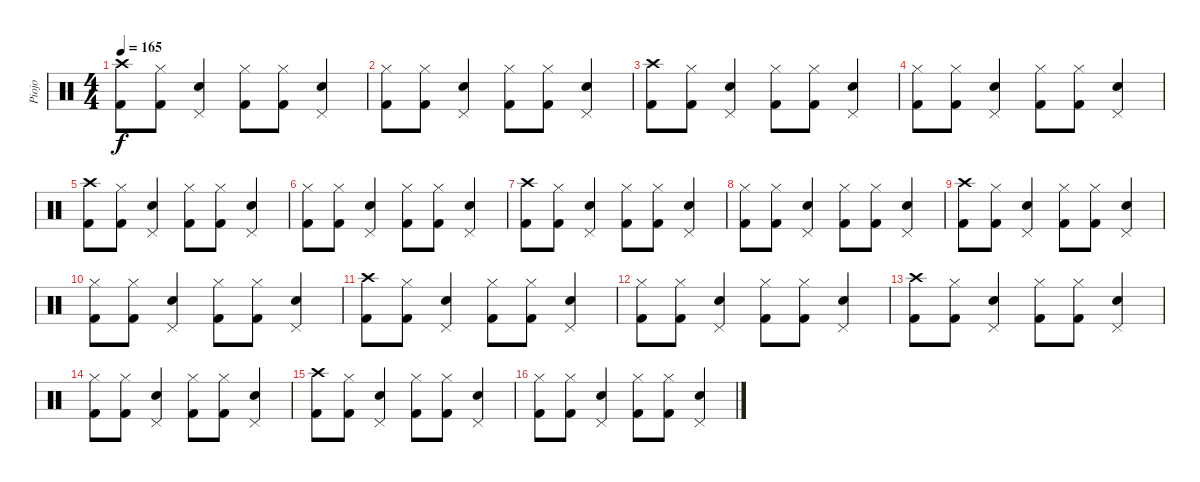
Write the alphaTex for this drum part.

\track ("Piojo" "Piojo") {instrument percussion}
\staff {score}
\articulation defaults
\ts (4 4)
\tempo 165
\clef neutral
\ks c
("Crash high (hit)" "Kick (hit) 2").8{dy f} ("Hi-Hat (closed)" "Kick (hit) 2").8 ("Pedal Hi-Hat (hit)" "Electric Snare (hit)").4 ("Hi-Hat (closed)" "Kick (hit) 2").8 ("Hi-Hat (closed)" "Kick (hit) 2").8 ("Pedal Hi-Hat (hit)" "Electric Snare (hit)").4 |
("Hi-Hat (closed)" "Kick (hit) 2").8 ("Hi-Hat (closed)" "Kick (hit) 2").8 ("Pedal Hi-Hat (hit)" "Electric Snare (hit)").4 ("Hi-Hat (closed)" "Kick (hit) 2").8 ("Hi-Hat (closed)" "Kick (hit) 2").8 ("Pedal Hi-Hat (hit)" "Electric Snare (hit)").4 |
("Crash high (hit)" "Kick (hit) 2").8 ("Hi-Hat (closed)" "Kick (hit) 2").8 ("Pedal Hi-Hat (hit)" "Electric Snare (hit)").4 ("Hi-Hat (closed)" "Kick (hit) 2").8 ("Hi-Hat (closed)" "Kick (hit) 2").8 ("Pedal Hi-Hat (hit)" "Electric Snare (hit)").4 |
("Hi-Hat (closed)" "Kick (hit) 2").8 ("Hi-Hat (closed)" "Kick (hit) 2").8 ("Pedal Hi-Hat (hit)" "Electric Snare (hit)").4 ("Hi-Hat (closed)" "Kick (hit) 2").8 ("Hi-Hat (closed)" "Kick (hit) 2").8 ("Pedal Hi-Hat (hit)" "Electric Snare (hit)").4 |
("Crash high (hit)" "Kick (hit) 2").8 ("Hi-Hat (closed)" "Kick (hit) 2").8 ("Pedal Hi-Hat (hit)" "Electric Snare (hit)").4 ("Hi-Hat (closed)" "Kick (hit) 2").8 ("Hi-Hat (closed)" "Kick (hit) 2").8 ("Pedal Hi-Hat (hit)" "Electric Snare (hit)").4 |
("Hi-Hat (closed)" "Kick (hit) 2").8 ("Hi-Hat (closed)" "Kick (hit) 2").8 ("Pedal Hi-Hat (hit)" "Electric Snare (hit)").4 ("Hi-Hat (closed)" "Kick (hit) 2").8 ("Hi-Hat (closed)" "Kick (hit) 2").8 ("Pedal Hi-Hat (hit)" "Electric Snare (hit)").4 |
("Crash high (hit)" "Kick (hit) 2").8 ("Hi-Hat (closed)" "Kick (hit) 2").8 ("Pedal Hi-Hat (hit)" "Electric Snare (hit)").4 ("Hi-Hat (closed)" "Kick (hit) 2").8 ("Hi-Hat (closed)" "Kick (hit) 2").8 ("Pedal Hi-Hat (hit)" "Electric Snare (hit)").4 |
("Hi-Hat (closed)" "Kick (hit) 2").8 ("Hi-Hat (closed)" "Kick (hit) 2").8 ("Pedal Hi-Hat (hit)" "Electric Snare (hit)").4 ("Hi-Hat (closed)" "Kick (hit) 2").8 ("Hi-Hat (closed)" "Kick (hit) 2").8 ("Pedal Hi-Hat (hit)" "Electric Snare (hit)").4 |
("Crash high (hit)" "Kick (hit) 2").8 ("Hi-Hat (closed)" "Kick (hit) 2").8 ("Pedal Hi-Hat (hit)" "Electric Snare (hit)").4 ("Hi-Hat (closed)" "Kick (hit) 2").8 ("Hi-Hat (closed)" "Kick (hit) 2").8 ("Pedal Hi-Hat (hit)" "Electric Snare (hit)").4 |
("Hi-Hat (closed)" "Kick (hit) 2").8 ("Hi-Hat (closed)" "Kick (hit) 2").8 ("Pedal Hi-Hat (hit)" "Electric Snare (hit)").4 ("Hi-Hat (closed)" "Kick (hit) 2").8 ("Hi-Hat (closed)" "Kick (hit) 2").8 ("Pedal Hi-Hat (hit)" "Electric Snare (hit)").4 |
("Crash high (hit)" "Kick (hit) 2").8 ("Hi-Hat (closed)" "Kick (hit) 2").8 ("Pedal Hi-Hat (hit)" "Electric Snare (hit)").4 ("Hi-Hat (closed)" "Kick (hit) 2").8 ("Hi-Hat (closed)" "Kick (hit) 2").8 ("Pedal Hi-Hat (hit)" "Electric Snare (hit)").4 |
("Hi-Hat (closed)" "Kick (hit) 2").8 ("Hi-Hat (closed)" "Kick (hit) 2").8 ("Pedal Hi-Hat (hit)" "Electric Snare (hit)").4 ("Hi-Hat (closed)" "Kick (hit) 2").8 ("Hi-Hat (closed)" "Kick (hit) 2").8 ("Pedal Hi-Hat (hit)" "Electric Snare (hit)").4 |
("Crash high (hit)" "Kick (hit) 2").8 ("Hi-Hat (closed)" "Kick (hit) 2").8 ("Pedal Hi-Hat (hit)" "Electric Snare (hit)").4 ("Hi-Hat (closed)" "Kick (hit) 2").8 ("Hi-Hat (closed)" "Kick (hit) 2").8 ("Pedal Hi-Hat (hit)" "Electric Snare (hit)").4 |
("Hi-Hat (closed)" "Kick (hit) 2").8 ("Hi-Hat (closed)" "Kick (hit) 2").8 ("Pedal Hi-Hat (hit)" "Electric Snare (hit)").4 ("Hi-Hat (closed)" "Kick (hit) 2").8 ("Hi-Hat (closed)" "Kick (hit) 2").8 ("Pedal Hi-Hat (hit)" "Electric Snare (hit)").4 |
("Crash high (hit)" "Kick (hit) 2").8 ("Hi-Hat (closed)" "Kick (hit) 2").8 ("Pedal Hi-Hat (hit)" "Electric Snare (hit)").4 ("Hi-Hat (closed)" "Kick (hit) 2").8 ("Hi-Hat (closed)" "Kick (hit) 2").8 ("Pedal Hi-Hat (hit)" "Electric Snare (hit)").4 |
("Hi-Hat (closed)" "Kick (hit) 2").8 ("Hi-Hat (closed)" "Kick (hit) 2").8 ("Pedal Hi-Hat (hit)" "Electric Snare (hit)").4 ("Hi-Hat (closed)" "Kick (hit) 2").8 ("Hi-Hat (closed)" "Kick (hit) 2").8 ("Pedal Hi-Hat (hit)" "Electric Snare (hit)").4
